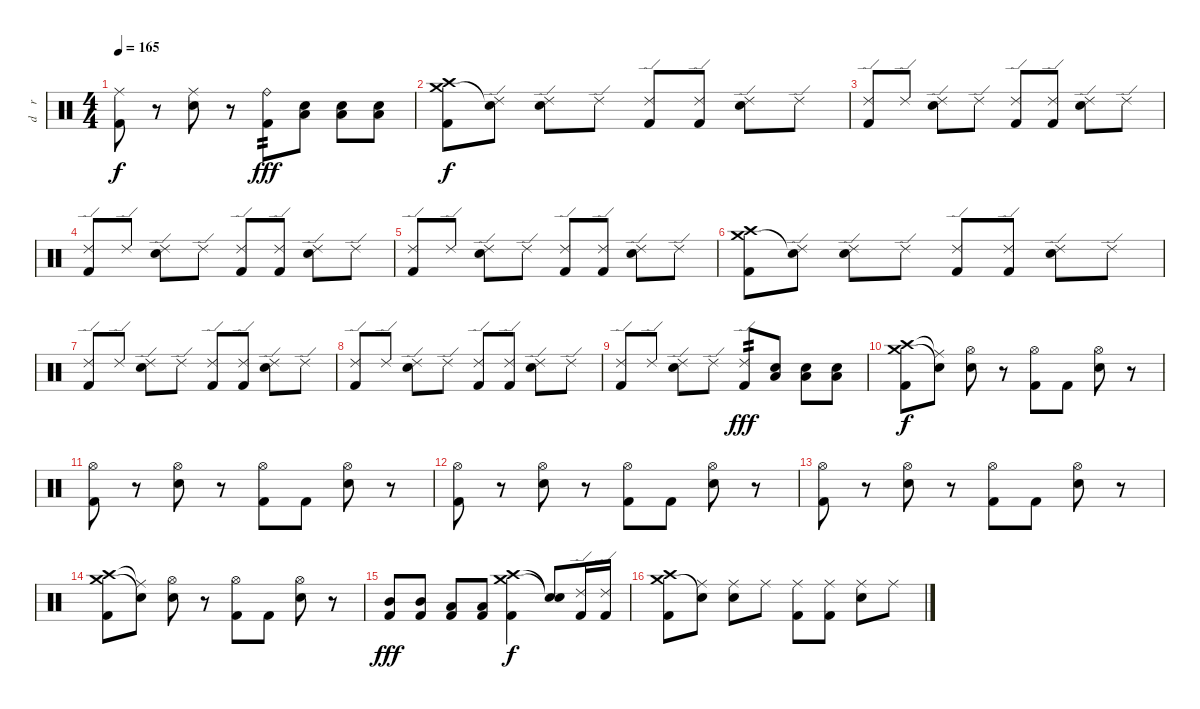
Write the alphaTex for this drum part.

\track ("d    r    u    m    s" "d    r    ") {instrument percussion}
\staff {score}
\articulation defaults
\ts (4 4)
\tempo 165
\clef neutral
\ks c
("Ride (middle)" "Kick (hit) 2").8{dy f} r.8 ("Ride (middle)" "Electric Snare (hit)").8 r.8 ("Ride (bell)" "Kick (hit) 2").8{tp 2 dy fff} ("Low Floor Tom (hit)" "Electric Snare (hit)").8 ("Low Floor Tom (hit)" "Electric Snare (hit)").8 ("Low Floor Tom (hit)" "Electric Snare (hit)").8 |
("Crash high (hit)" "Crash medium (hit)" "Kick (hit) 2").8{dy f} ("Ride (edge) 2" "Snare (hit)"{t}).8 ("Ride (edge) 2" "Electric Snare (hit)").8 "Ride (edge) 2".8 ("Ride (edge) 2" "Kick (hit) 2").8 ("Ride (edge) 2" "Kick (hit) 2").8 ("Ride (edge) 2" "Electric Snare (hit)").8 "Ride (edge) 2".8 |
("Ride (edge) 2" "Kick (hit) 2").8 "Ride (edge) 2".8 ("Ride (edge) 2" "Electric Snare (hit)").8 "Ride (edge) 2".8 ("Ride (edge) 2" "Kick (hit) 2").8 ("Ride (edge) 2" "Kick (hit) 2").8 ("Ride (edge) 2" "Electric Snare (hit)").8 "Ride (edge) 2".8 |
("Ride (edge) 2" "Kick (hit) 2").8 "Ride (edge) 2".8 ("Ride (edge) 2" "Electric Snare (hit)").8 "Ride (edge) 2".8 ("Ride (edge) 2" "Kick (hit) 2").8 ("Ride (edge) 2" "Kick (hit) 2").8 ("Ride (edge) 2" "Electric Snare (hit)").8 "Ride (edge) 2".8 |
("Ride (edge) 2" "Kick (hit) 2").8 "Ride (edge) 2".8 ("Ride (edge) 2" "Electric Snare (hit)").8 "Ride (edge) 2".8 ("Ride (edge) 2" "Kick (hit) 2").8 ("Ride (edge) 2" "Kick (hit) 2").8 ("Ride (edge) 2" "Electric Snare (hit)").8 "Ride (edge) 2".8 |
("Crash high (hit)" "Crash medium (hit)" "Kick (hit) 2").8 ("Ride (edge) 2" "Snare (hit)"{t}).8 ("Ride (edge) 2" "Electric Snare (hit)").8 "Ride (edge) 2".8 ("Ride (edge) 2" "Kick (hit) 2").8 ("Ride (edge) 2" "Kick (hit) 2").8 ("Ride (edge) 2" "Electric Snare (hit)").8 "Ride (edge) 2".8 |
("Ride (edge) 2" "Kick (hit) 2").8 "Ride (edge) 2".8 ("Ride (edge) 2" "Electric Snare (hit)").8 "Ride (edge) 2".8 ("Ride (edge) 2" "Kick (hit) 2").8 ("Ride (edge) 2" "Kick (hit) 2").8 ("Ride (edge) 2" "Electric Snare (hit)").8 "Ride (edge) 2".8 |
("Ride (edge) 2" "Kick (hit) 2").8 "Ride (edge) 2".8 ("Ride (edge) 2" "Electric Snare (hit)").8 "Ride (edge) 2".8 ("Ride (edge) 2" "Kick (hit) 2").8 ("Ride (edge) 2" "Kick (hit) 2").8 ("Ride (edge) 2" "Electric Snare (hit)").8 "Ride (edge) 2".8 |
("Ride (edge) 2" "Kick (hit) 2").8 "Ride (edge) 2".8 ("Ride (edge) 2" "Electric Snare (hit)").8 "Ride (edge) 2".8 ("Ride (edge) 2" "Kick (hit) 2").8{tp 2 dy fff} ("Low Floor Tom (hit)" "Electric Snare (hit)").8 ("Low Floor Tom (hit)" "Electric Snare (hit)").8 ("Low Floor Tom (hit)" "Electric Snare (hit)").8 |
("Crash high (hit)" "Crash medium (hit)" "Kick (hit) 2").8{dy f} ("Ride (middle)"{t} "Snare (hit)"{t}).8 ("Hi-Hat (open)" "Electric Snare (hit)").8 r.8 ("Hi-Hat (open)" "Kick (hit) 2").8 "Kick (hit) 2".8 ("Hi-Hat (open)" "Electric Snare (hit)").8 r.8 |
("Hi-Hat (open)" "Kick (hit) 2").8 r.8 ("Hi-Hat (open)" "Electric Snare (hit)").8 r.8 ("Hi-Hat (open)" "Kick (hit) 2").8 "Kick (hit) 2".8 ("Hi-Hat (open)" "Electric Snare (hit)").8 r.8 |
("Hi-Hat (open)" "Kick (hit) 2").8 r.8 ("Hi-Hat (open)" "Electric Snare (hit)").8 r.8 ("Hi-Hat (open)" "Kick (hit) 2").8 "Kick (hit) 2".8 ("Hi-Hat (open)" "Electric Snare (hit)").8 r.8 |
("Hi-Hat (open)" "Kick (hit) 2").8 r.8 ("Hi-Hat (open)" "Electric Snare (hit)").8 r.8 ("Hi-Hat (open)" "Kick (hit) 2").8 "Kick (hit) 2".8 ("Hi-Hat (open)" "Electric Snare (hit)").8 r.8 |
("Crash high (hit)" "Crash medium (hit)" "Kick (hit) 2").8 ("Ride (middle)"{t} "Snare (hit)"{t}).8 ("Hi-Hat (open)" "Electric Snare (hit)").8 r.8 ("Hi-Hat (open)" "Kick (hit) 2").8 "Kick (hit) 2".8 ("Hi-Hat (open)" "Electric Snare (hit)").8 r.8 |
("Mid Tom (hit)" "Kick (hit) 2").8{dy fff} ("Mid Tom (hit)" "Kick (hit) 2").8 ("Low Tom (hit)" "Kick (hit) 2").8 ("Low Tom (hit)" "Kick (hit) 2").8 ("Crash high (hit)" "Crash medium (hit)" "Kick (hit) 2").4{dy f} ("Snare (hit)"{t} "Snare (hit)"{t}).8 ("Ride (edge) 2" "Kick (hit) 2").16 ("Ride (edge) 2" "Kick (hit) 2").16 |
("Crash high (hit)" "Crash medium (hit)" "Kick (hit) 2").8 ("Ride (middle)" "Snare (hit)"{t}).8 ("Ride (middle)" "Electric Snare (hit)").8 "Ride (middle)".8 ("Ride (middle)" "Kick (hit) 2").8 ("Ride (middle)" "Kick (hit) 2").8 ("Ride (middle)" "Electric Snare (hit)").8 "Ride (middle)".8
